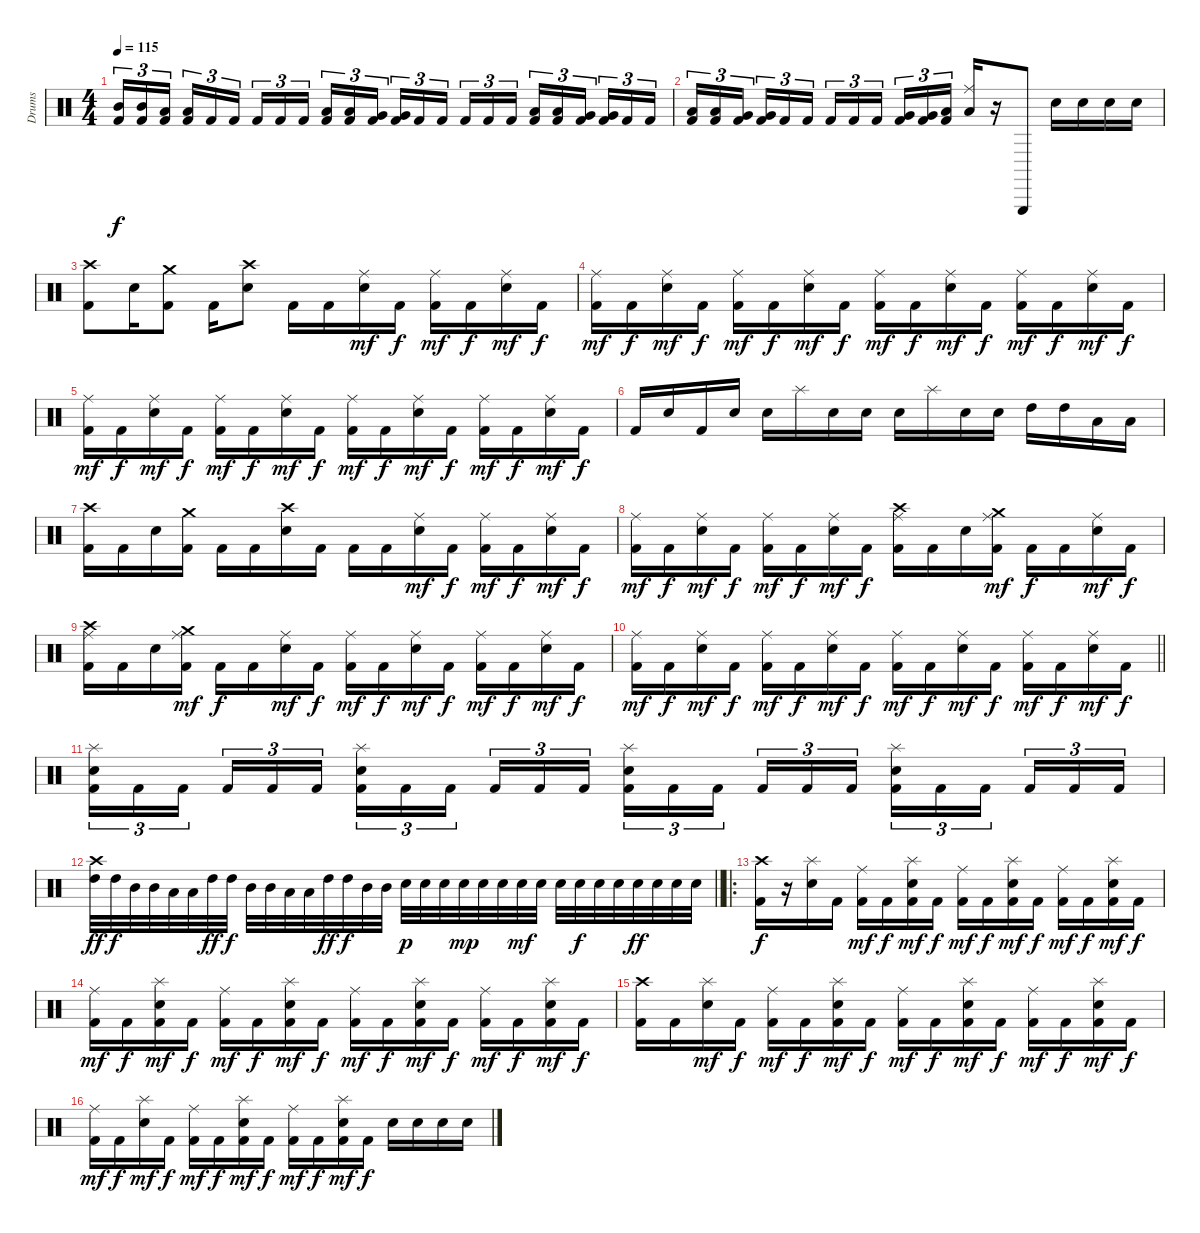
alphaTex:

\track ("Drums" "Drums") {instrument percussion}
\staff {score}
\articulation defaults
\ts (4 4)
\tempo 115
\clef neutral
\ks c
("Mid Tom (hit)" "Kick (hit) 2").16{tu (3 2) dy f} ("Mid Tom (hit)" "Kick (hit) 2").16{tu (3 2)} ("Low Tom (hit)" "Kick (hit) 2").16{tu (3 2) beam splitsecondary} ("Low Tom (hit)" "Kick (hit) 2").16{tu (3 2)} "Kick (hit) 2".16{tu (3 2)} "Kick (hit) 2".16{tu (3 2)} "Kick (hit) 2".16{tu (3 2)} "Kick (hit) 2".16{tu (3 2)} "Kick (hit) 2".16{tu (3 2) beam splitsecondary} ("Low Tom (hit)" "Kick (hit) 2").16{tu (3 2)} ("Low Tom (hit)" "Kick (hit) 2").16{tu (3 2)} ("Very Low Tom (hit)" "Kick (hit) 2").16{tu (3 2)} ("Very Low Tom (hit)" "Kick (hit) 2").16{tu (3 2)} "Kick (hit) 2".16{tu (3 2)} "Kick (hit) 2".16{tu (3 2) beam splitsecondary} "Kick (hit) 2".16{tu (3 2)} "Kick (hit) 2".16{tu (3 2)} "Kick (hit) 2".16{tu (3 2)} ("Low Tom (hit)" "Kick (hit) 2").16{tu (3 2)} ("Low Tom (hit)" "Kick (hit) 2").16{tu (3 2)} ("Very Low Tom (hit)" "Kick (hit) 2").16{tu (3 2) beam splitsecondary} ("Very Low Tom (hit)" "Kick (hit) 2").16{tu (3 2)} "Kick (hit) 2".16{tu (3 2)} "Kick (hit) 2".16{tu (3 2)} |
("Low Tom (hit)" "Kick (hit) 2").16{tu (3 2)} ("Low Tom (hit)" "Kick (hit) 2").16{tu (3 2)} ("Very Low Tom (hit)" "Kick (hit) 2").16{tu (3 2) beam splitsecondary} ("Very Low Tom (hit)" "Kick (hit) 2").16{tu (3 2)} "Kick (hit) 2".16{tu (3 2)} "Kick (hit) 2".16{tu (3 2)} "Kick (hit) 2".16{tu (3 2)} "Kick (hit) 2".16{tu (3 2)} "Kick (hit) 2".16{tu (3 2) beam splitsecondary} ("Very Low Tom (hit)" "Kick (hit) 2").16{tu (3 2)} ("Very Low Tom (hit)" "Kick (hit) 2").16{tu (3 2)} ("Low Floor Tom (hit)" "Kick (hit) 2").16{tu (3 2)} ("Ride (middle)" "Low Floor Tom (hit)").16 r.16 "Triangle (hit)".8 "Electric Snare (hit)".16 "Electric Snare (hit)".16 "Electric Snare (hit)".16 "Electric Snare (hit)".16 |
("Crash high (hit)" "Kick (hit) 2").8 "Snare (hit) 2".16 ("Crash medium (hit)" "Kick (hit) 2").8 "Kick (hit) 2".16 ("Crash high (hit)" "Snare (hit) 2").8 "Kick (hit) 2".16 "Kick (hit) 2".16 ("Snare (hit) 2" "Ride (middle)").16{dy mf} "Kick (hit) 2".16{dy f} ("Ride (middle)" "Kick (hit) 2").16{dy mf} "Kick (hit) 2".16{dy f} ("Snare (hit) 2" "Ride (middle)").16{dy mf} "Kick (hit) 2".16{dy f} |
("Ride (middle)" "Kick (hit) 2").16{dy mf} "Kick (hit) 2".16{dy f} ("Snare (hit) 2" "Ride (middle)").16{dy mf} "Kick (hit) 2".16{dy f} ("Ride (middle)" "Kick (hit) 2").16{dy mf} "Kick (hit) 2".16{dy f} ("Snare (hit) 2" "Ride (middle)").16{dy mf} "Kick (hit) 2".16{dy f} ("Ride (middle)" "Kick (hit) 2").16{dy mf} "Kick (hit) 2".16{dy f} ("Snare (hit) 2" "Ride (middle)").16{dy mf} "Kick (hit) 2".16{dy f} ("Ride (middle)" "Kick (hit) 2").16{dy mf} "Kick (hit) 2".16{dy f} ("Snare (hit) 2" "Ride (middle)").16{dy mf} "Kick (hit) 2".16{dy f} |
("Ride (middle)" "Kick (hit) 2").16{dy mf} "Kick (hit) 2".16{dy f} ("Snare (hit) 2" "Ride (middle)").16{dy mf} "Kick (hit) 2".16{dy f} ("Ride (middle)" "Kick (hit) 2").16{dy mf} "Kick (hit) 2".16{dy f} ("Snare (hit) 2" "Ride (middle)").16{dy mf} "Kick (hit) 2".16{dy f} ("Ride (middle)" "Kick (hit) 2").16{dy mf} "Kick (hit) 2".16{dy f} ("Snare (hit) 2" "Ride (middle)").16{dy mf} "Kick (hit) 2".16{dy f} ("Ride (middle)" "Kick (hit) 2").16{dy mf} "Kick (hit) 2".16{dy f} ("Snare (hit) 2" "Ride (middle)").16{dy mf} "Kick (hit) 2".16{dy f} |
"Kick (hit) 2".16 "Snare (hit) 2".16 "Kick (hit) 2".16 "Snare (hit) 2".16 "Snare (hit) 2".16 "Splash (hit)".16 "Snare (hit) 2".16 "Snare (hit) 2".16 "Snare (hit) 2".16 "Splash (hit)".16 "Snare (hit) 2".16 "Snare (hit) 2".16 "High Tom (hit)".16 "High Tom (hit)".16 "Low Tom (hit)".16 "Low Tom (hit)".16 |
("Crash high (hit)" "Kick (hit) 2").16 "Kick (hit) 2".16 "Snare (hit) 2".16 ("Crash medium (hit)" "Kick (hit) 2").16 "Kick (hit) 2".16 "Kick (hit) 2".16 ("Crash high (hit)" "Snare (hit) 2").16 "Kick (hit) 2".16 "Kick (hit) 2".16 "Kick (hit) 2".16 ("Snare (hit) 2" "Ride (middle)").16{dy mf} "Kick (hit) 2".16{dy f} ("Ride (middle)" "Kick (hit) 2").16{dy mf} "Kick (hit) 2".16{dy f} ("Snare (hit) 2" "Ride (middle)").16{dy mf} "Kick (hit) 2".16{dy f} |
("Ride (middle)" "Kick (hit) 2").16{dy mf} "Kick (hit) 2".16{dy f} ("Snare (hit) 2" "Ride (middle)").16{dy mf} "Kick (hit) 2".16{dy f} ("Ride (middle)" "Kick (hit) 2").16{dy mf} "Kick (hit) 2".16{dy f} ("Snare (hit) 2" "Ride (middle)").16{dy mf} "Kick (hit) 2".16{dy f} ("Crash high (hit)" "Ride (middle)" "Kick (hit) 2").16 "Kick (hit) 2".16 "Snare (hit) 2".16 ("Crash medium (hit)" "Ride (middle)" "Kick (hit) 2").16{dy mf} "Kick (hit) 2".16{dy f} "Kick (hit) 2".16 ("Snare (hit) 2" "Ride (middle)").16{dy mf} "Kick (hit) 2".16{dy f} |
("Crash high (hit)" "Ride (middle)" "Kick (hit) 2").16 "Kick (hit) 2".16 "Snare (hit) 2".16 ("Crash medium (hit)" "Ride (middle)" "Kick (hit) 2").16{dy mf} "Kick (hit) 2".16{dy f} "Kick (hit) 2".16 ("Snare (hit) 2" "Ride (middle)").16{dy mf} "Kick (hit) 2".16{dy f} ("Ride (middle)" "Kick (hit) 2").16{dy mf} "Kick (hit) 2".16{dy f} ("Snare (hit) 2" "Ride (middle)").16{dy mf} "Kick (hit) 2".16{dy f} ("Ride (middle)" "Kick (hit) 2").16{dy mf} "Kick (hit) 2".16{dy f} ("Snare (hit) 2" "Ride (middle)").16{dy mf} "Kick (hit) 2".16{dy f} |
\barLineRight lightlight
("Ride (middle)" "Kick (hit) 2").16{dy mf} "Kick (hit) 2".16{dy f} ("Snare (hit) 2" "Ride (middle)").16{dy mf} "Kick (hit) 2".16{dy f} ("Ride (middle)" "Kick (hit) 2").16{dy mf} "Kick (hit) 2".16{dy f} ("Snare (hit) 2" "Ride (middle)").16{dy mf} "Kick (hit) 2".16{dy f} ("Ride (middle)" "Kick (hit) 2").16{dy mf} "Kick (hit) 2".16{dy f} ("Snare (hit) 2" "Ride (middle)").16{dy mf} "Kick (hit) 2".16{dy f} ("Ride (middle)" "Kick (hit) 2").16{dy mf} "Kick (hit) 2".16{dy f} ("Snare (hit) 2" "Ride (middle)").16{dy mf} "Kick (hit) 2".16{dy f} |
\section ("" "")
("Splash (hit)" "Snare (hit) 2" "Kick (hit) 2").16{tu (3 2)} "Kick (hit) 2".16{tu (3 2)} "Kick (hit) 2".16{tu (3 2) beam splitsecondary} "Kick (hit) 2".16{tu (3 2)} "Kick (hit) 2".16{tu (3 2)} "Kick (hit) 2".16{tu (3 2)} ("Splash (hit)" "Snare (hit) 2" "Kick (hit) 2").16{tu (3 2)} "Kick (hit) 2".16{tu (3 2)} "Kick (hit) 2".16{tu (3 2) beam splitsecondary} "Kick (hit) 2".16{tu (3 2)} "Kick (hit) 2".16{tu (3 2)} "Kick (hit) 2".16{tu (3 2)} ("Splash (hit)" "Snare (hit) 2" "Kick (hit) 2").16{tu (3 2)} "Kick (hit) 2".16{tu (3 2)} "Kick (hit) 2".16{tu (3 2) beam splitsecondary} "Kick (hit) 2".16{tu (3 2)} "Kick (hit) 2".16{tu (3 2)} "Kick (hit) 2".16{tu (3 2)} ("Splash (hit)" "Snare (hit) 2" "Kick (hit) 2").16{tu (3 2)} "Kick (hit) 2".16{tu (3 2)} "Kick (hit) 2".16{tu (3 2) beam splitsecondary} "Kick (hit) 2".16{tu (3 2)} "Kick (hit) 2".16{tu (3 2)} "Kick (hit) 2".16{tu (3 2)} |
\barLineRight lightlight
("Crash high (hit)" "High Tom (hit)").32{dy ff} "High Tom (hit)".32{dy f} "Mid Tom (hit)".32 "Mid Tom (hit)".32 "Low Tom (hit)".32 "Low Tom (hit)".32 "High Tom (hit)".32{dy ff} "High Tom (hit)".32{dy f} "Mid Tom (hit)".32 "Mid Tom (hit)".32 "Low Tom (hit)".32 "Low Tom (hit)".32 "High Tom (hit)".32{dy ff} "High Tom (hit)".32{dy f} "Mid Tom (hit)".32 "Mid Tom (hit)".32 "Snare (hit) 2".32{dy p} "Snare (hit) 2".32 "Snare (hit) 2".32 "Snare (hit) 2".32{dy mp} "Snare (hit) 2".32 "Snare (hit) 2".32 "Snare (hit) 2".32{dy mf} "Snare (hit) 2".32 "Snare (hit) 2".32 "Snare (hit) 2".32{dy f} "Snare (hit) 2".32 "Snare (hit) 2".32 "Snare (hit) 2".32{dy ff} "Snare (hit) 2".32 "Snare (hit) 2".32 "Snare (hit) 2".32 |
\ro
("Crash high (hit)" "Kick (hit) 2").16{dy f} r.16 ("Splash (hit)" "Snare (hit) 2").16 "Kick (hit) 2".16 ("Ride (middle)" "Kick (hit) 2").16{dy mf} "Kick (hit) 2".16{dy f} ("Splash (hit)" "Snare (hit) 2" "Kick (hit) 2").16{dy mf} "Kick (hit) 2".16{dy f} ("Ride (middle)" "Kick (hit) 2").16{dy mf} "Kick (hit) 2".16{dy f} ("Splash (hit)" "Snare (hit) 2" "Kick (hit) 2").16{dy mf} "Kick (hit) 2".16{dy f} ("Ride (middle)" "Kick (hit) 2").16{dy mf} "Kick (hit) 2".16{dy f} ("Splash (hit)" "Snare (hit) 2" "Kick (hit) 2").16{dy mf} "Kick (hit) 2".16{dy f} |
("Ride (middle)" "Kick (hit) 2").16{dy mf} "Kick (hit) 2".16{dy f} ("Splash (hit)" "Snare (hit) 2" "Kick (hit) 2").16{dy mf} "Kick (hit) 2".16{dy f} ("Ride (middle)" "Kick (hit) 2").16{dy mf} "Kick (hit) 2".16{dy f} ("Splash (hit)" "Snare (hit) 2" "Kick (hit) 2").16{dy mf} "Kick (hit) 2".16{dy f} ("Ride (middle)" "Kick (hit) 2").16{dy mf} "Kick (hit) 2".16{dy f} ("Splash (hit)" "Snare (hit) 2" "Kick (hit) 2").16{dy mf} "Kick (hit) 2".16{dy f} ("Ride (middle)" "Kick (hit) 2").16{dy mf} "Kick (hit) 2".16{dy f} ("Splash (hit)" "Snare (hit) 2" "Kick (hit) 2").16{dy mf} "Kick (hit) 2".16{dy f} |
("Crash high (hit)" "Kick (hit) 2").16 "Kick (hit) 2".16 ("Splash (hit)" "Snare (hit) 2").16{dy mf} "Kick (hit) 2".16{dy f} ("Ride (middle)" "Kick (hit) 2").16{dy mf} "Kick (hit) 2".16{dy f} ("Splash (hit)" "Snare (hit) 2" "Kick (hit) 2").16{dy mf} "Kick (hit) 2".16{dy f} ("Ride (middle)" "Kick (hit) 2").16{dy mf} "Kick (hit) 2".16{dy f} ("Splash (hit)" "Snare (hit) 2" "Kick (hit) 2").16{dy mf} "Kick (hit) 2".16{dy f} ("Ride (middle)" "Kick (hit) 2").16{dy mf} "Kick (hit) 2".16{dy f} ("Splash (hit)" "Snare (hit) 2" "Kick (hit) 2").16{dy mf} "Kick (hit) 2".16{dy f} |
("Ride (middle)" "Kick (hit) 2").16{dy mf} "Kick (hit) 2".16{dy f} ("Splash (hit)" "Snare (hit) 2").16{dy mf} "Kick (hit) 2".16{dy f} ("Ride (middle)" "Kick (hit) 2").16{dy mf} "Kick (hit) 2".16{dy f} ("Splash (hit)" "Snare (hit) 2" "Kick (hit) 2").16{dy mf} "Kick (hit) 2".16{dy f} ("Ride (middle)" "Kick (hit) 2").16{dy mf} "Kick (hit) 2".16{dy f} ("Splash (hit)" "Snare (hit) 2" "Kick (hit) 2").16{dy mf} "Kick (hit) 2".16{dy f} "Snare (hit) 2".16 "Snare (hit) 2".16 "Snare (hit) 2".16 "Snare (hit) 2".16
